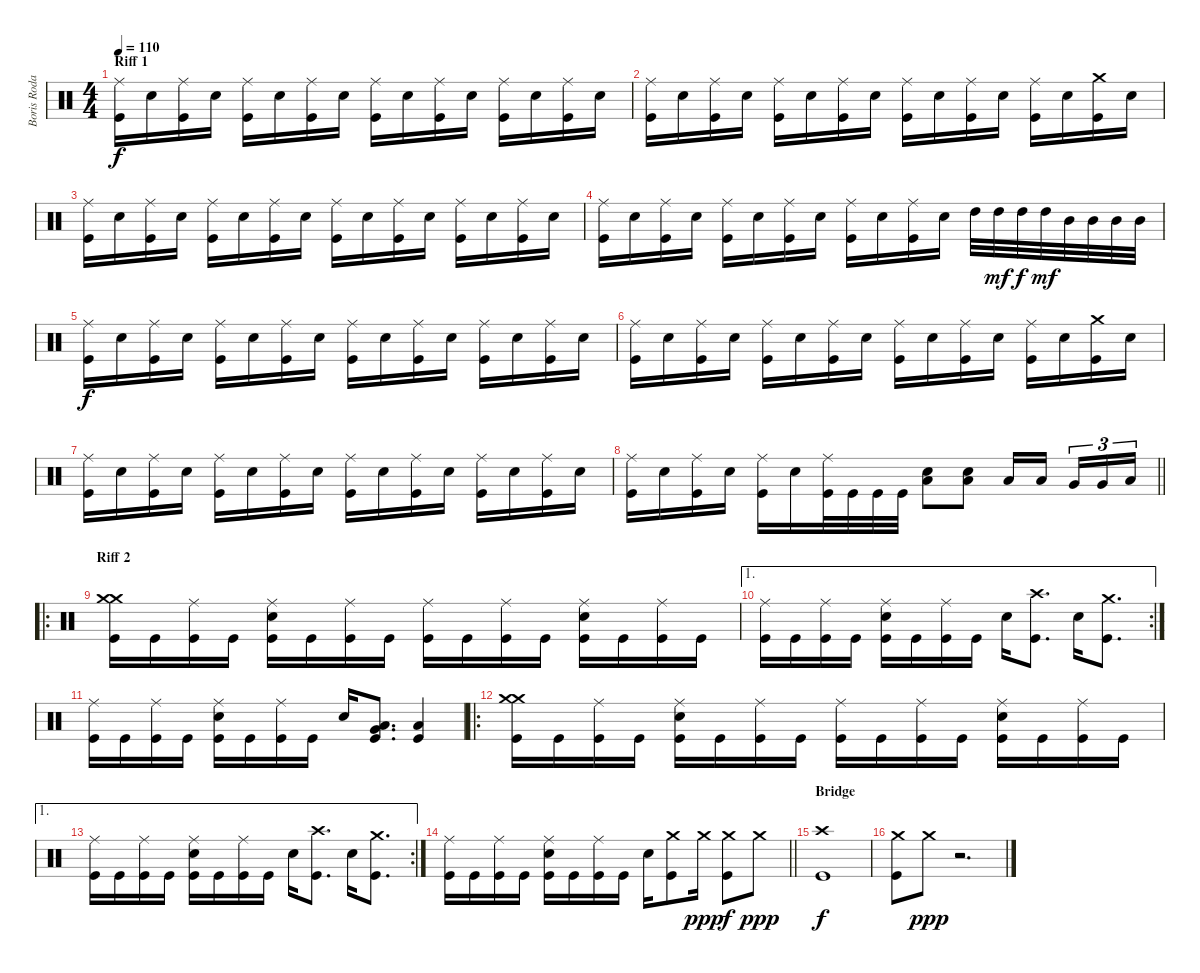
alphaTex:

\track ("Boris Rodas" "Boris Roda") {instrument percussion}
\staff {score}
\articulation defaults
\ts (4 4)
\section ("" "Riff 1")
\tempo 110
\clef neutral
\ks c
("Ride (middle)" "Kick (hit)").16{dy f} "Electric Snare (hit)".16 ("Ride (middle)" "Kick (hit)").16 "Electric Snare (hit)".16 ("Ride (middle)" "Kick (hit)").16 "Electric Snare (hit)".16 ("Ride (middle)" "Kick (hit)").16 "Electric Snare (hit)".16 ("Ride (middle)" "Kick (hit)").16 "Electric Snare (hit)".16 ("Ride (middle)" "Kick (hit)").16 "Electric Snare (hit)".16 ("Ride (middle)" "Kick (hit)").16 "Electric Snare (hit)".16 ("Ride (middle)" "Kick (hit)").16 "Electric Snare (hit)".16 |
("Ride (middle)" "Kick (hit)").16 "Electric Snare (hit)".16 ("Ride (middle)" "Kick (hit)").16 "Electric Snare (hit)".16 ("Ride (middle)" "Kick (hit)").16 "Electric Snare (hit)".16 ("Ride (middle)" "Kick (hit)").16 "Electric Snare (hit)".16 ("Ride (middle)" "Kick (hit)").16 "Electric Snare (hit)".16 ("Ride (middle)" "Kick (hit)").16 "Electric Snare (hit)".16 ("Ride (middle)" "Kick (hit)").16 "Electric Snare (hit)".16 ("Crash medium (hit)" "Kick (hit)").16 "Electric Snare (hit)".16 |
("Ride (middle)" "Kick (hit)").16 "Electric Snare (hit)".16 ("Ride (middle)" "Kick (hit)").16 "Electric Snare (hit)".16 ("Ride (middle)" "Kick (hit)").16 "Electric Snare (hit)".16 ("Ride (middle)" "Kick (hit)").16 "Electric Snare (hit)".16 ("Ride (middle)" "Kick (hit)").16 "Electric Snare (hit)".16 ("Ride (middle)" "Kick (hit)").16 "Electric Snare (hit)".16 ("Ride (middle)" "Kick (hit)").16 "Electric Snare (hit)".16 ("Ride (middle)" "Kick (hit)").16 "Electric Snare (hit)".16 |
("Ride (middle)" "Kick (hit)").16 "Electric Snare (hit)".16 ("Ride (middle)" "Kick (hit)").16 "Electric Snare (hit)".16 ("Ride (middle)" "Kick (hit)").16 "Electric Snare (hit)".16 ("Ride (middle)" "Kick (hit)").16 "Electric Snare (hit)".16 ("Ride (middle)" "Kick (hit)").16 "Electric Snare (hit)".16 ("Ride (middle)" "Kick (hit)").16 "Electric Snare (hit)".16 "High Tom (hit)".32 "High Tom (hit)".32{dy mf} "High Tom (hit)".32{dy f} "High Tom (hit)".32{dy mf} "Mid Tom (hit)".32 "Mid Tom (hit)".32 "Mid Tom (hit)".32 "Mid Tom (hit)".32 |
("Ride (middle)" "Kick (hit)").16{dy f} "Electric Snare (hit)".16 ("Ride (middle)" "Kick (hit)").16 "Electric Snare (hit)".16 ("Ride (middle)" "Kick (hit)").16 "Electric Snare (hit)".16 ("Ride (middle)" "Kick (hit)").16 "Electric Snare (hit)".16 ("Ride (middle)" "Kick (hit)").16 "Electric Snare (hit)".16 ("Ride (middle)" "Kick (hit)").16 "Electric Snare (hit)".16 ("Ride (middle)" "Kick (hit)").16 "Electric Snare (hit)".16 ("Ride (middle)" "Kick (hit)").16 "Electric Snare (hit)".16 |
("Ride (middle)" "Kick (hit)").16 "Electric Snare (hit)".16 ("Ride (middle)" "Kick (hit)").16 "Electric Snare (hit)".16 ("Ride (middle)" "Kick (hit)").16 "Electric Snare (hit)".16 ("Ride (middle)" "Kick (hit)").16 "Electric Snare (hit)".16 ("Ride (middle)" "Kick (hit)").16 "Electric Snare (hit)".16 ("Ride (middle)" "Kick (hit)").16 "Electric Snare (hit)".16 ("Ride (middle)" "Kick (hit)").16 "Electric Snare (hit)".16 ("Crash medium (hit)" "Kick (hit)").16 "Electric Snare (hit)".16 |
("Ride (middle)" "Kick (hit)").16 "Electric Snare (hit)".16 ("Ride (middle)" "Kick (hit)").16 "Electric Snare (hit)".16 ("Ride (middle)" "Kick (hit)").16 "Electric Snare (hit)".16 ("Ride (middle)" "Kick (hit)").16 "Electric Snare (hit)".16 ("Ride (middle)" "Kick (hit)").16 "Electric Snare (hit)".16 ("Ride (middle)" "Kick (hit)").16 "Electric Snare (hit)".16 ("Ride (middle)" "Kick (hit)").16 "Electric Snare (hit)".16 ("Ride (middle)" "Kick (hit)").16 "Electric Snare (hit)".16 |
\barLineRight lightlight
("Ride (middle)" "Kick (hit)").16 "Electric Snare (hit)".16 ("Ride (middle)" "Kick (hit)").16 "Electric Snare (hit)".16 ("Ride (middle)" "Kick (hit)").16 "Electric Snare (hit)".16 ("Ride (middle)" "Kick (hit)").32 "Kick (hit)".32 "Kick (hit)".32 "Kick (hit)".32 ("Low Floor Tom (hit)" "Electric Snare (hit)").8 ("Low Floor Tom (hit)" "Electric Snare (hit)").8 "Low Tom (hit)".16 "Low Tom (hit)".16{beam splitsecondary} "Very Low Tom (hit)".16{tu (3 2)} "Very Low Tom (hit)".16{tu (3 2)} "Low Floor Tom (hit)".16{tu (3 2)} |
\ro
\section ("" "Riff 2")
("Crash medium (hit)" "Crash medium (hit)" "Kick (hit)").16 "Kick (hit)".16 ("Ride (middle)" "Kick (hit)").16 "Kick (hit)".16 ("Ride (middle)" "Electric Snare (hit)" "Kick (hit)").16 "Kick (hit)".16 ("Ride (middle)" "Kick (hit)").16 "Kick (hit)".16 ("Ride (middle)" "Kick (hit)").16 "Kick (hit)".16 ("Ride (middle)" "Kick (hit)").16 "Kick (hit)".16 ("Ride (middle)" "Electric Snare (hit)" "Kick (hit)").16 "Kick (hit)".16 ("Ride (middle)" "Kick (hit)").16 "Kick (hit)".16 |
\ae 1
\rc 2
("Ride (middle)" "Kick (hit)").16 "Kick (hit)".16 ("Ride (middle)" "Kick (hit)").16 "Kick (hit)".16 ("Ride (middle)" "Electric Snare (hit)" "Kick (hit)").16 "Kick (hit)".16 ("Ride (middle)" "Kick (hit)").16 "Kick (hit)".16 "Electric Snare (hit)".16 ("Crash high (hit)" "Kick (hit)").8{d} "Electric Snare (hit)".16 ("Crash medium (hit)" "Kick (hit)").8{d} |
("Ride (middle)" "Kick (hit)").16 "Kick (hit)".16 ("Ride (middle)" "Kick (hit)").16 "Kick (hit)".16 ("Ride (middle)" "Electric Snare (hit)" "Kick (hit)").16 "Kick (hit)".16 ("Ride (middle)" "Kick (hit)").16 "Kick (hit)".16 "Electric Snare (hit)".16 ("Low Floor Tom (hit)" "Very Low Tom (hit)" "Kick (hit)").8{d} ("Low Floor Tom (hit)" "Kick (hit)").4 |
\ro
("Crash medium (hit)" "Crash medium (hit)" "Kick (hit)").16 "Kick (hit)".16 ("Ride (middle)" "Kick (hit)").16 "Kick (hit)".16 ("Ride (middle)" "Electric Snare (hit)" "Kick (hit)").16 "Kick (hit)".16 ("Ride (middle)" "Kick (hit)").16 "Kick (hit)".16 ("Ride (middle)" "Kick (hit)").16 "Kick (hit)".16 ("Ride (middle)" "Kick (hit)").16 "Kick (hit)".16 ("Ride (middle)" "Electric Snare (hit)" "Kick (hit)").16 "Kick (hit)".16 ("Ride (middle)" "Kick (hit)").16 "Kick (hit)".16 |
\ae 1
\rc 2
("Ride (middle)" "Kick (hit)").16 "Kick (hit)".16 ("Ride (middle)" "Kick (hit)").16 "Kick (hit)".16 ("Ride (middle)" "Electric Snare (hit)" "Kick (hit)").16 "Kick (hit)".16 ("Ride (middle)" "Kick (hit)").16 "Kick (hit)".16 "Electric Snare (hit)".16 ("Crash high (hit)" "Kick (hit)").8{d} "Electric Snare (hit)".16 ("Crash medium (hit)" "Kick (hit)").8{d} |
\barLineRight lightlight
("Ride (middle)" "Kick (hit)").16 "Kick (hit)".16 ("Ride (middle)" "Kick (hit)").16 "Kick (hit)".16 ("Ride (middle)" "Electric Snare (hit)" "Kick (hit)").16 "Kick (hit)".16 ("Ride (middle)" "Kick (hit)").16 "Kick (hit)".16 "Electric Snare (hit)".16 ("Crash medium (hit)" "Kick (hit)").8 "Crash medium (hit)".16{dy ppp} ("Crash medium (hit)" "Kick (hit)").8{dy f} "Crash medium (hit)".8{dy ppp} |
\section ("" "Bridge")
("Crash high (hit)" "Kick (hit)").1{dy f} |
("Crash medium (hit)" "Kick (hit)").8 "Crash medium (hit)".8{dy ppp} r.2{d}
